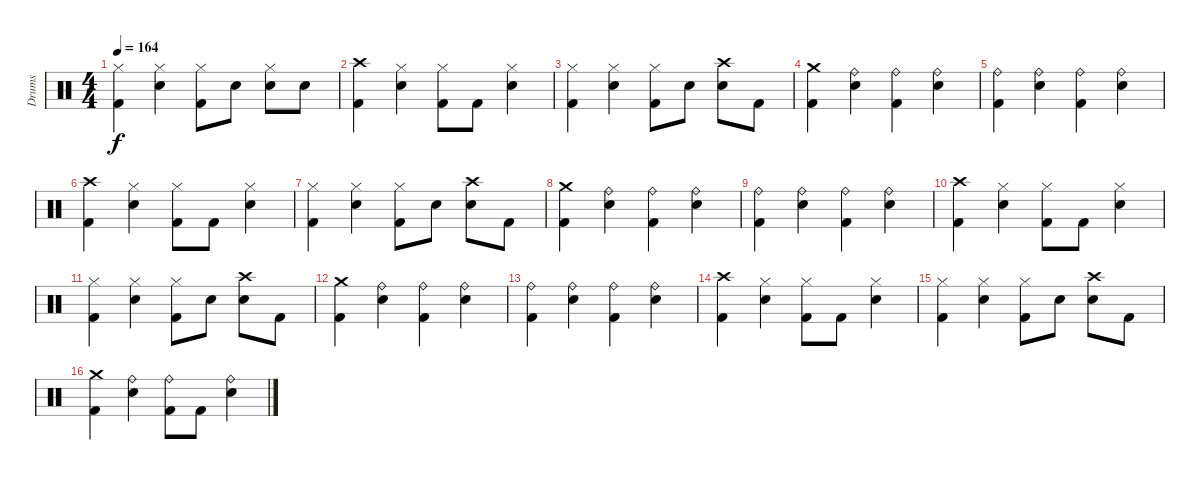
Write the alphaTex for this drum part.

\track ("Drums" "Drums") {instrument percussion}
\staff {score}
\articulation defaults
\ts (4 4)
\tempo 164
\clef neutral
\ks c
("Kick (hit) 2" "Hi-Hat (closed)").4{dy f} ("Snare (hit) 2" "Hi-Hat (closed)").4 ("Kick (hit) 2" "Hi-Hat (closed)").8 "Snare (hit) 2".8 ("Snare (hit) 2" "Hi-Hat (closed)").8 "Snare (hit) 2".8 |
("Kick (hit) 2" "Crash high (hit)").4 ("Snare (hit) 2" "Hi-Hat (closed)").4 ("Kick (hit) 2" "Hi-Hat (closed)").8 "Kick (hit) 2".8 ("Snare (hit) 2" "Hi-Hat (closed)").4 |
("Kick (hit) 2" "Hi-Hat (closed)").4 ("Snare (hit) 2" "Hi-Hat (closed)").4 ("Kick (hit) 2" "Hi-Hat (closed)").8 "Snare (hit) 2".8 ("Snare (hit) 2" "Crash high (hit)").8 "Kick (hit) 2".8 |
("Kick (hit) 2" "Crash medium (hit)").4 ("Snare (hit) 2" "Ride (bell)").4 ("Kick (hit) 2" "Ride (bell)").4 ("Snare (hit) 2" "Ride (bell)").4 |
("Kick (hit) 2" "Ride (bell)").4 ("Snare (hit) 2" "Ride (bell)").4 ("Kick (hit) 2" "Ride (bell)").4 ("Snare (hit) 2" "Ride (bell)").4 |
("Kick (hit) 2" "Crash high (hit)").4 ("Snare (hit) 2" "Hi-Hat (closed)").4 ("Kick (hit) 2" "Hi-Hat (closed)").8 "Kick (hit) 2".8 ("Snare (hit) 2" "Hi-Hat (closed)").4 |
("Kick (hit) 2" "Hi-Hat (closed)").4 ("Snare (hit) 2" "Hi-Hat (closed)").4 ("Kick (hit) 2" "Hi-Hat (closed)").8 "Snare (hit) 2".8 ("Snare (hit) 2" "Crash high (hit)").8 "Kick (hit) 2".8 |
("Kick (hit) 2" "Crash medium (hit)").4 ("Snare (hit) 2" "Ride (bell)").4 ("Kick (hit) 2" "Ride (bell)").4 ("Snare (hit) 2" "Ride (bell)").4 |
("Kick (hit) 2" "Ride (bell)").4 ("Snare (hit) 2" "Ride (bell)").4 ("Kick (hit) 2" "Ride (bell)").4 ("Snare (hit) 2" "Ride (bell)").4 |
("Kick (hit) 2" "Crash high (hit)").4 ("Snare (hit) 2" "Hi-Hat (closed)").4 ("Kick (hit) 2" "Hi-Hat (closed)").8 "Kick (hit) 2".8 ("Snare (hit) 2" "Hi-Hat (closed)").4 |
("Kick (hit) 2" "Hi-Hat (closed)").4 ("Snare (hit) 2" "Hi-Hat (closed)").4 ("Kick (hit) 2" "Hi-Hat (closed)").8 "Snare (hit) 2".8 ("Snare (hit) 2" "Crash high (hit)").8 "Kick (hit) 2".8 |
("Kick (hit) 2" "Crash medium (hit)").4 ("Snare (hit) 2" "Ride (bell)").4 ("Kick (hit) 2" "Ride (bell)").4 ("Snare (hit) 2" "Ride (bell)").4 |
("Kick (hit) 2" "Ride (bell)").4 ("Snare (hit) 2" "Ride (bell)").4 ("Kick (hit) 2" "Ride (bell)").4 ("Snare (hit) 2" "Ride (bell)").4 |
("Kick (hit) 2" "Crash high (hit)").4 ("Snare (hit) 2" "Hi-Hat (closed)").4 ("Kick (hit) 2" "Hi-Hat (closed)").8 "Kick (hit) 2".8 ("Snare (hit) 2" "Hi-Hat (closed)").4 |
("Kick (hit) 2" "Hi-Hat (closed)").4 ("Snare (hit) 2" "Hi-Hat (closed)").4 ("Kick (hit) 2" "Hi-Hat (closed)").8 "Snare (hit) 2".8 ("Snare (hit) 2" "Crash high (hit)").8 "Kick (hit) 2".8 |
("Kick (hit) 2" "Crash medium (hit)").4 ("Snare (hit) 2" "Ride (bell)").4 ("Kick (hit) 2" "Ride (bell)").8 "Kick (hit) 2".8 ("Snare (hit) 2" "Ride (bell)").4
